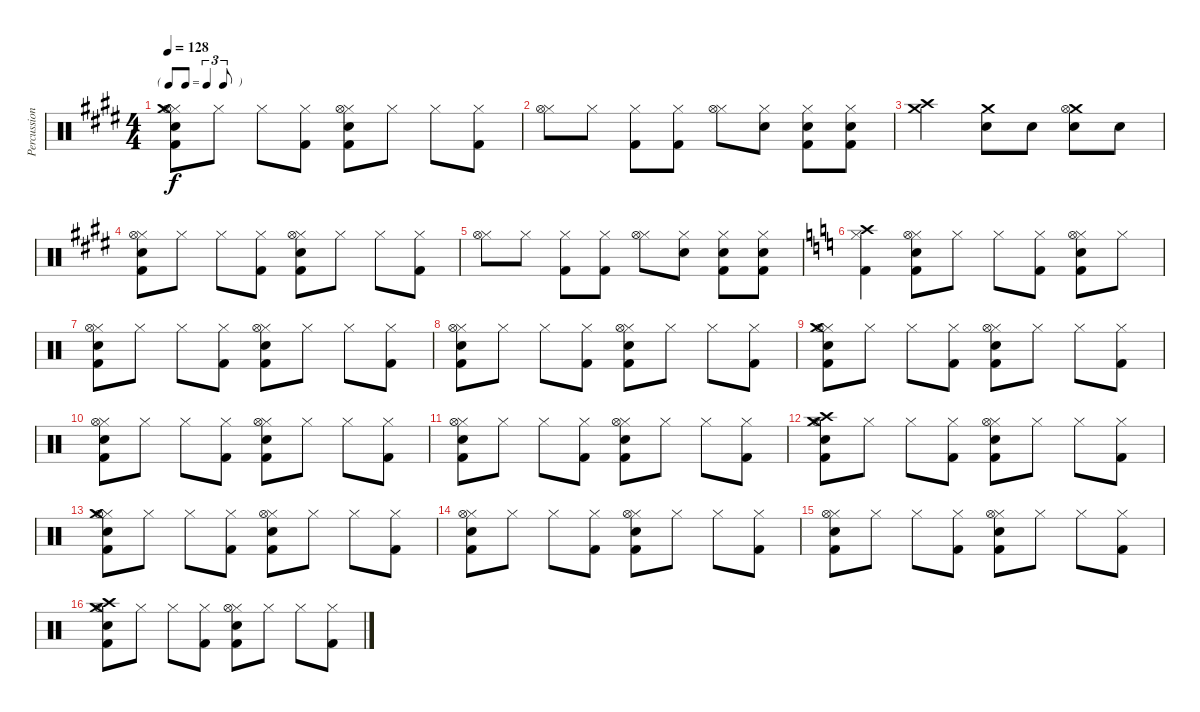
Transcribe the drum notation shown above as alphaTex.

\track ("Percussion" "Percussion") {instrument percussion}
\staff {score}
\articulation defaults
\ts (4 4)
\tf triplet8th
\tempo 128
\clef neutral
\ks e
("Kick (hit) 2" "Electric Snare (hit)" "Hi-Hat (closed)" "Crash medium (hit)" "Hi-Hat (open)").8{dy f} "Hi-Hat (closed)".8 "Hi-Hat (closed)".8 ("Kick (hit) 2" "Hi-Hat (closed)").8 ("Kick (hit) 2" "Electric Snare (hit)" "Hi-Hat (closed)" "Hi-Hat (open)").8 "Hi-Hat (closed)".8 "Hi-Hat (closed)".8 ("Kick (hit) 2" "Hi-Hat (closed)").8 |
("Hi-Hat (closed)" "Hi-Hat (open)").8 "Hi-Hat (closed)".8 ("Kick (hit) 2" "Hi-Hat (closed)").8 ("Kick (hit) 2" "Hi-Hat (closed)").8 ("Hi-Hat (closed)" "Hi-Hat (open)").8 ("Electric Snare (hit)" "Hi-Hat (closed)").8 ("Kick (hit) 2" "Electric Snare (hit)" "Hi-Hat (closed)").8 ("Kick (hit) 2" "Electric Snare (hit)" "Hi-Hat (closed)").8 |
("Crash medium (hit)" "Crash high (hit)").2 ("Electric Snare (hit)" "Crash medium (hit)").8 "Electric Snare (hit)".8 ("Electric Snare (hit)" "Crash medium (hit)" "Hi-Hat (open)").8 "Electric Snare (hit)".8 |
("Kick (hit) 2" "Electric Snare (hit)" "Hi-Hat (closed)" "Hi-Hat (open)").8 "Hi-Hat (closed)".8 "Hi-Hat (closed)".8 ("Kick (hit) 2" "Hi-Hat (closed)").8 ("Kick (hit) 2" "Electric Snare (hit)" "Hi-Hat (closed)" "Hi-Hat (open)").8 "Hi-Hat (closed)".8 "Hi-Hat (closed)".8 ("Kick (hit) 2" "Hi-Hat (closed)").8 |
("Hi-Hat (closed)" "Hi-Hat (open)").8 "Hi-Hat (closed)".8 ("Kick (hit) 2" "Hi-Hat (closed)").8 ("Kick (hit) 2" "Hi-Hat (closed)").8 ("Hi-Hat (closed)" "Hi-Hat (open)").8 ("Electric Snare (hit)" "Hi-Hat (closed)").8 ("Kick (hit) 2" "Electric Snare (hit)" "Hi-Hat (closed)").8 ("Kick (hit) 2" "Electric Snare (hit)" "Hi-Hat (closed)").8 |
\ks c
("Kick (hit) 2" "Hi-Hat (closed)" "Crash high (hit)").4 ("Kick (hit) 2" "Electric Snare (hit)" "Hi-Hat (closed)" "Hi-Hat (open)").8 "Hi-Hat (closed)".8 "Hi-Hat (closed)".8 ("Kick (hit) 2" "Hi-Hat (closed)").8 ("Kick (hit) 2" "Electric Snare (hit)" "Hi-Hat (closed)" "Hi-Hat (open)").8 "Hi-Hat (closed)".8 |
("Kick (hit) 2" "Electric Snare (hit)" "Hi-Hat (closed)" "Hi-Hat (open)").8 "Hi-Hat (closed)".8 "Hi-Hat (closed)".8 ("Kick (hit) 2" "Hi-Hat (closed)").8 ("Kick (hit) 2" "Electric Snare (hit)" "Hi-Hat (closed)" "Hi-Hat (open)").8 "Hi-Hat (closed)".8 "Hi-Hat (closed)".8 ("Kick (hit) 2" "Hi-Hat (closed)").8 |
("Kick (hit) 2" "Electric Snare (hit)" "Hi-Hat (closed)" "Hi-Hat (open)").8 "Hi-Hat (closed)".8 "Hi-Hat (closed)".8 ("Kick (hit) 2" "Hi-Hat (closed)").8 ("Kick (hit) 2" "Electric Snare (hit)" "Hi-Hat (closed)" "Hi-Hat (open)").8 "Hi-Hat (closed)".8 "Hi-Hat (closed)".8 ("Kick (hit) 2" "Hi-Hat (closed)").8 |
("Kick (hit) 2" "Electric Snare (hit)" "Hi-Hat (closed)" "Crash medium (hit)" "Hi-Hat (open)").8 "Hi-Hat (closed)".8 "Hi-Hat (closed)".8 ("Kick (hit) 2" "Hi-Hat (closed)").8 ("Kick (hit) 2" "Electric Snare (hit)" "Hi-Hat (closed)" "Hi-Hat (open)").8 "Hi-Hat (closed)".8 "Hi-Hat (closed)".8 ("Kick (hit) 2" "Hi-Hat (closed)").8 |
("Kick (hit) 2" "Electric Snare (hit)" "Hi-Hat (closed)" "Hi-Hat (open)").8 "Hi-Hat (closed)".8 "Hi-Hat (closed)".8 ("Kick (hit) 2" "Hi-Hat (closed)").8 ("Kick (hit) 2" "Electric Snare (hit)" "Hi-Hat (closed)" "Hi-Hat (open)").8 "Hi-Hat (closed)".8 "Hi-Hat (closed)".8 ("Kick (hit) 2" "Hi-Hat (closed)").8 |
("Kick (hit) 2" "Electric Snare (hit)" "Hi-Hat (closed)" "Hi-Hat (open)").8 "Hi-Hat (closed)".8 "Hi-Hat (closed)".8 ("Kick (hit) 2" "Hi-Hat (closed)").8 ("Kick (hit) 2" "Electric Snare (hit)" "Hi-Hat (closed)" "Hi-Hat (open)").8 "Hi-Hat (closed)".8 "Hi-Hat (closed)".8 ("Kick (hit) 2" "Hi-Hat (closed)").8 |
("Kick (hit) 2" "Electric Snare (hit)" "Crash medium (hit)" "Crash high (hit)" "Hi-Hat (open)").8 "Hi-Hat (closed)".8 "Hi-Hat (closed)".8 ("Kick (hit) 2" "Hi-Hat (closed)").8 ("Kick (hit) 2" "Electric Snare (hit)" "Hi-Hat (closed)" "Hi-Hat (open)").8 "Hi-Hat (closed)".8 "Hi-Hat (closed)".8 ("Kick (hit) 2" "Hi-Hat (closed)").8 |
("Kick (hit) 2" "Electric Snare (hit)" "Hi-Hat (closed)" "Crash medium (hit)" "Hi-Hat (open)").8 "Hi-Hat (closed)".8 "Hi-Hat (closed)".8 ("Kick (hit) 2" "Hi-Hat (closed)").8 ("Kick (hit) 2" "Electric Snare (hit)" "Hi-Hat (closed)" "Hi-Hat (open)").8 "Hi-Hat (closed)".8 "Hi-Hat (closed)".8 ("Kick (hit) 2" "Hi-Hat (closed)").8 |
("Kick (hit) 2" "Electric Snare (hit)" "Hi-Hat (closed)" "Hi-Hat (open)").8 "Hi-Hat (closed)".8 "Hi-Hat (closed)".8 ("Kick (hit) 2" "Hi-Hat (closed)").8 ("Kick (hit) 2" "Electric Snare (hit)" "Hi-Hat (closed)" "Hi-Hat (open)").8 "Hi-Hat (closed)".8 "Hi-Hat (closed)".8 ("Kick (hit) 2" "Hi-Hat (closed)").8 |
("Kick (hit) 2" "Electric Snare (hit)" "Hi-Hat (closed)" "Hi-Hat (open)").8 "Hi-Hat (closed)".8 "Hi-Hat (closed)".8 ("Kick (hit) 2" "Hi-Hat (closed)").8 ("Kick (hit) 2" "Electric Snare (hit)" "Hi-Hat (closed)" "Hi-Hat (open)").8 "Hi-Hat (closed)".8 "Hi-Hat (closed)".8 ("Kick (hit) 2" "Hi-Hat (closed)").8 |
("Kick (hit) 2" "Electric Snare (hit)" "Crash medium (hit)" "Crash high (hit)" "Hi-Hat (open)").8 "Hi-Hat (closed)".8 "Hi-Hat (closed)".8 ("Kick (hit) 2" "Hi-Hat (closed)").8 ("Kick (hit) 2" "Electric Snare (hit)" "Hi-Hat (closed)" "Hi-Hat (open)").8 "Hi-Hat (closed)".8 "Hi-Hat (closed)".8 ("Kick (hit) 2" "Hi-Hat (closed)").8
